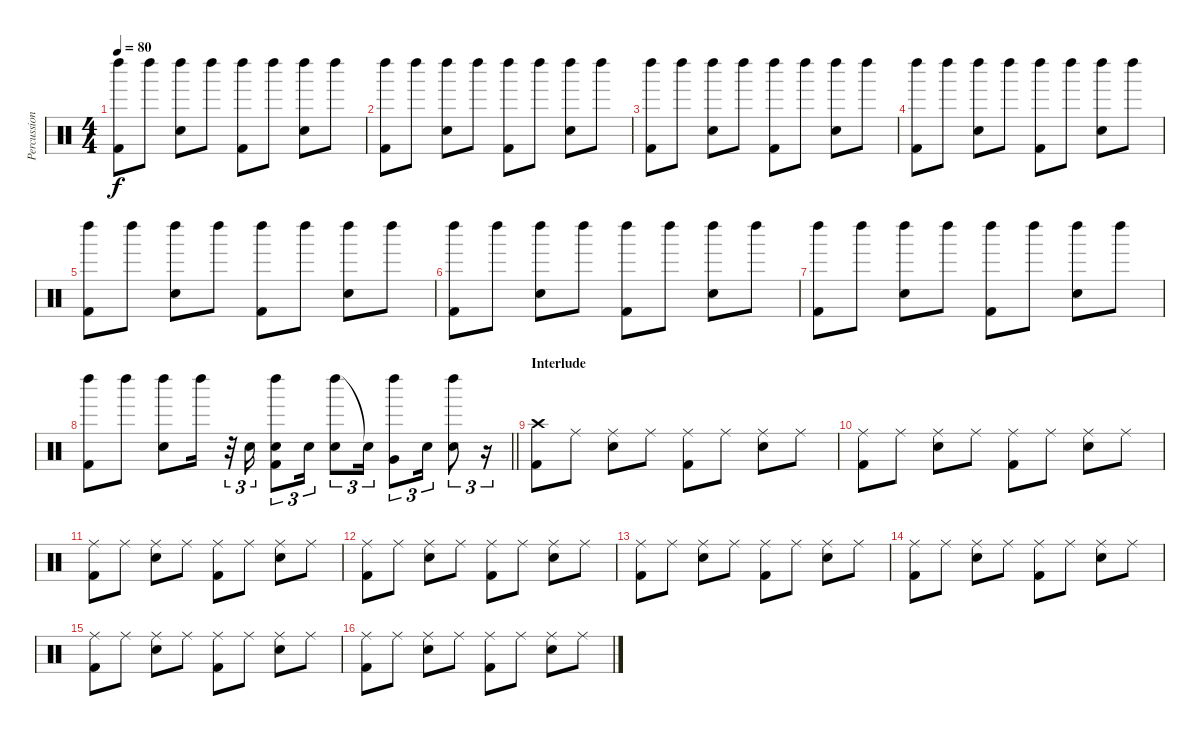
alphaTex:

\track ("Percussion" "Percussion") {instrument percussion}
\staff {score}
\articulation defaults
\ts (4 4)
\tempo 80
\clef neutral
\ks c
("Left Maraca (hit)" "Kick (hit) 2").8{dy f} "Left Maraca (hit)".8 ("Left Maraca (hit)" "Electric Snare (hit)").8 "Left Maraca (hit)".8 ("Left Maraca (hit)" "Kick (hit) 2").8 "Left Maraca (hit)".8 ("Left Maraca (hit)" "Electric Snare (hit)").8 "Left Maraca (hit)".8 |
("Left Maraca (hit)" "Kick (hit) 2").8 "Left Maraca (hit)".8 ("Left Maraca (hit)" "Electric Snare (hit)").8 "Left Maraca (hit)".8 ("Left Maraca (hit)" "Kick (hit) 2").8 "Left Maraca (hit)".8 ("Left Maraca (hit)" "Electric Snare (hit)").8 "Left Maraca (hit)".8 |
("Left Maraca (hit)" "Kick (hit) 2").8 "Left Maraca (hit)".8 ("Left Maraca (hit)" "Electric Snare (hit)").8 "Left Maraca (hit)".8 ("Left Maraca (hit)" "Kick (hit) 2").8 "Left Maraca (hit)".8 ("Left Maraca (hit)" "Electric Snare (hit)").8 "Left Maraca (hit)".8 |
("Left Maraca (hit)" "Kick (hit) 2").8 "Left Maraca (hit)".8 ("Left Maraca (hit)" "Electric Snare (hit)").8 "Left Maraca (hit)".8 ("Left Maraca (hit)" "Kick (hit) 2").8 "Left Maraca (hit)".8 ("Left Maraca (hit)" "Electric Snare (hit)").8 "Left Maraca (hit)".8 |
("Left Maraca (hit)" "Kick (hit) 2").8 "Left Maraca (hit)".8 ("Left Maraca (hit)" "Electric Snare (hit)").8 "Left Maraca (hit)".8 ("Left Maraca (hit)" "Kick (hit) 2").8 "Left Maraca (hit)".8 ("Left Maraca (hit)" "Electric Snare (hit)").8 "Left Maraca (hit)".8 |
("Left Maraca (hit)" "Kick (hit) 2").8 "Left Maraca (hit)".8 ("Left Maraca (hit)" "Electric Snare (hit)").8 "Left Maraca (hit)".8 ("Left Maraca (hit)" "Kick (hit) 2").8 "Left Maraca (hit)".8 ("Left Maraca (hit)" "Electric Snare (hit)").8 "Left Maraca (hit)".8 |
("Left Maraca (hit)" "Kick (hit) 2").8 "Left Maraca (hit)".8 ("Left Maraca (hit)" "Electric Snare (hit)").8 "Left Maraca (hit)".8 ("Left Maraca (hit)" "Kick (hit) 2").8 "Left Maraca (hit)".8 ("Left Maraca (hit)" "Electric Snare (hit)").8 "Left Maraca (hit)".8 |
\barLineRight lightlight
("Left Maraca (hit)" "Kick (hit) 2").8 "Left Maraca (hit)".8 ("Left Maraca (hit)" "Electric Snare (hit)").8 "Left Maraca (hit)".16 r.32{tu (3 2)} "Electric Snare (hit)".16{tu (3 2)} ("Left Maraca (hit)" "Electric Snare (hit)" "Kick (hit) 2").8{tu (3 2)} "Electric Snare (hit)".16{tu (3 2)} ("Left Maraca (hit)" "Electric Snare (hit)").8{tu (3 2)} "Snare (hit)"{t}.16{tu (3 2)} ("Left Maraca (hit)" "Very Low Tom (hit)").8{tu (3 2)} "Electric Snare (hit)".16{tu (3 2)} ("Left Maraca (hit)" "Electric Snare (hit)").8{tu (3 2)} r.16{tu (3 2)} |
\section ("" "Interlude")
("Crash high (hit)" "Kick (hit) 2").8 "Ride (middle)".8 ("Ride (middle)" "Electric Snare (hit)").8 "Ride (middle)".8 ("Ride (middle)" "Kick (hit) 2").8 "Ride (middle)".8 ("Ride (middle)" "Electric Snare (hit)").8 "Ride (middle)".8 |
("Ride (middle)" "Kick (hit) 2").8 "Ride (middle)".8 ("Ride (middle)" "Electric Snare (hit)").8 "Ride (middle)".8 ("Ride (middle)" "Kick (hit) 2").8 "Ride (middle)".8 ("Ride (middle)" "Electric Snare (hit)").8 "Ride (middle)".8 |
("Ride (middle)" "Kick (hit) 2").8 "Ride (middle)".8 ("Ride (middle)" "Electric Snare (hit)").8 "Ride (middle)".8 ("Ride (middle)" "Kick (hit) 2").8 "Ride (middle)".8 ("Ride (middle)" "Electric Snare (hit)").8 "Ride (middle)".8 |
("Ride (middle)" "Kick (hit) 2").8 "Ride (middle)".8 ("Ride (middle)" "Electric Snare (hit)").8 "Ride (middle)".8 ("Ride (middle)" "Kick (hit) 2").8 "Ride (middle)".8 ("Ride (middle)" "Electric Snare (hit)").8 "Ride (middle)".8 |
("Ride (middle)" "Kick (hit) 2").8 "Ride (middle)".8 ("Ride (middle)" "Electric Snare (hit)").8 "Ride (middle)".8 ("Ride (middle)" "Kick (hit) 2").8 "Ride (middle)".8 ("Ride (middle)" "Electric Snare (hit)").8 "Ride (middle)".8 |
("Ride (middle)" "Kick (hit) 2").8 "Ride (middle)".8 ("Ride (middle)" "Electric Snare (hit)").8 "Ride (middle)".8 ("Ride (middle)" "Kick (hit) 2").8 "Ride (middle)".8 ("Ride (middle)" "Electric Snare (hit)").8 "Ride (middle)".8 |
("Ride (middle)" "Kick (hit) 2").8 "Ride (middle)".8 ("Ride (middle)" "Electric Snare (hit)").8 "Ride (middle)".8 ("Ride (middle)" "Kick (hit) 2").8 "Ride (middle)".8 ("Ride (middle)" "Electric Snare (hit)").8 "Ride (middle)".8 |
("Ride (middle)" "Kick (hit) 2").8 "Ride (middle)".8 ("Ride (middle)" "Electric Snare (hit)").8 "Ride (middle)".8 ("Ride (middle)" "Kick (hit) 2").8 "Ride (middle)".8 ("Ride (middle)" "Electric Snare (hit)").8 "Ride (middle)".8
